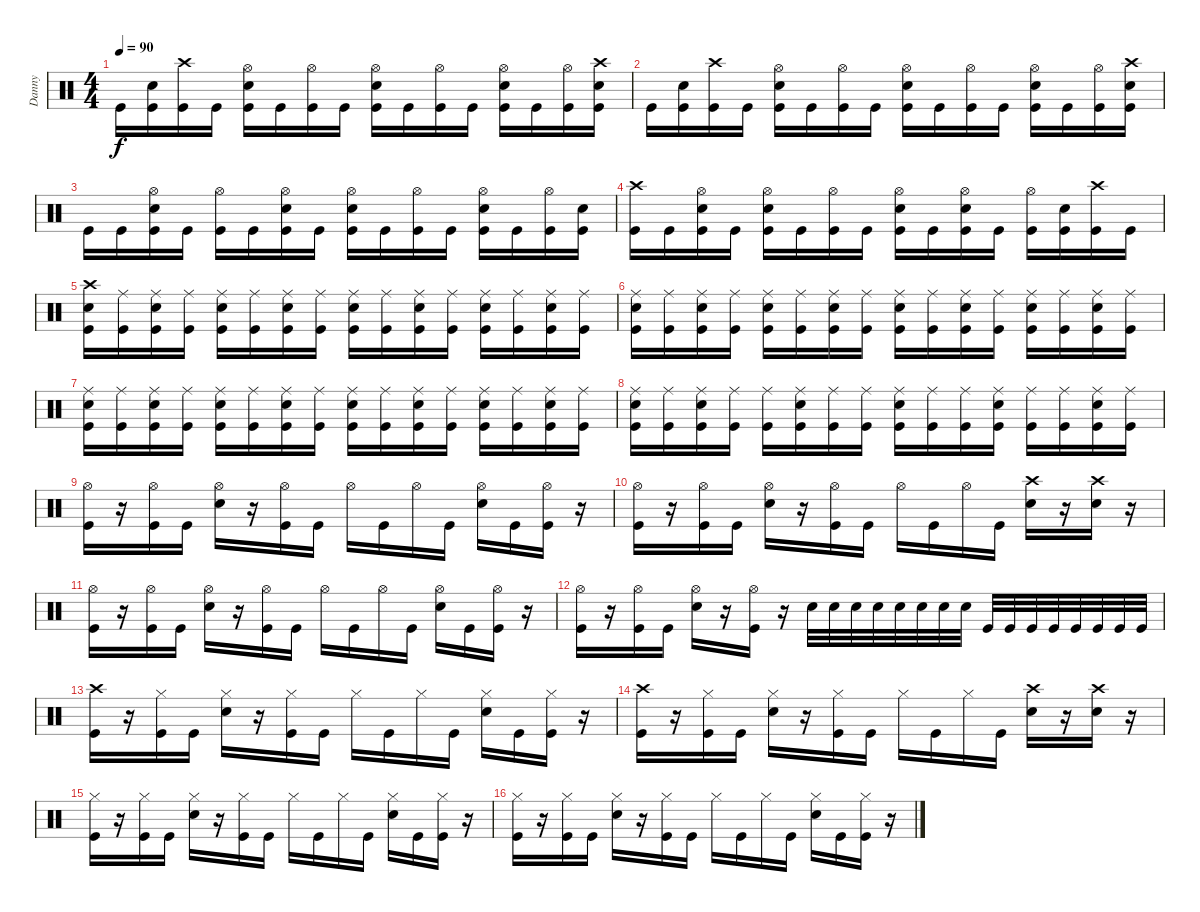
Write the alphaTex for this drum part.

\track ("Danny" "Danny") {instrument percussion}
\staff {score}
\articulation defaults
\ts (4 4)
\tempo 90
\clef neutral
\ks c "Kick (hit)".16{dy f}
("Electric Snare (hit)" "Kick (hit)").16 ("Crash high (hit)" "Kick (hit)").16 "Kick (hit)".16 ("Hi-Hat (open)" "Electric Snare (hit)" "Kick (hit)").16 "Kick (hit)".16 ("Hi-Hat (open)" "Kick (hit)").16 "Kick (hit)".16 ("Hi-Hat (open)" "Electric Snare (hit)" "Kick (hit)").16 "Kick (hit)".16 ("Hi-Hat (open)" "Kick (hit)").16 "Kick (hit)".16 ("Hi-Hat (open)" "Electric Snare (hit)" "Kick (hit)").16 "Kick (hit)".16 ("Hi-Hat (open)" "Kick (hit)").16 ("Crash high (hit)" "Electric Snare (hit)" "Kick (hit)").16 |
"Kick (hit)".16 ("Electric Snare (hit)" "Kick (hit)").16 ("Crash high (hit)" "Kick (hit)").16 "Kick (hit)".16 ("Hi-Hat (open)" "Electric Snare (hit)" "Kick (hit)").16 "Kick (hit)".16 ("Hi-Hat (open)" "Kick (hit)").16 "Kick (hit)".16 ("Hi-Hat (open)" "Electric Snare (hit)" "Kick (hit)").16 "Kick (hit)".16 ("Hi-Hat (open)" "Kick (hit)").16 "Kick (hit)".16 ("Hi-Hat (open)" "Electric Snare (hit)" "Kick (hit)").16 "Kick (hit)".16 ("Hi-Hat (open)" "Kick (hit)").16 ("Crash high (hit)" "Electric Snare (hit)" "Kick (hit)").16 |
"Kick (hit)".16 "Kick (hit)".16 ("Hi-Hat (open)" "Electric Snare (hit)" "Kick (hit)").16 "Kick (hit)".16 ("Hi-Hat (open)" "Kick (hit)").16 "Kick (hit)".16 ("Hi-Hat (open)" "Electric Snare (hit)" "Kick (hit)").16 "Kick (hit)".16 ("Hi-Hat (open)" "Electric Snare (hit)" "Kick (hit)").16 "Kick (hit)".16 ("Hi-Hat (open)" "Kick (hit)").16 "Kick (hit)".16 ("Hi-Hat (open)" "Electric Snare (hit)" "Kick (hit)").16 "Kick (hit)".16 ("Hi-Hat (open)" "Kick (hit)").16 ("Electric Snare (hit)" "Kick (hit)").16 |
("Crash high (hit)" "Kick (hit)").16 "Kick (hit)".16 ("Hi-Hat (open)" "Electric Snare (hit)" "Kick (hit)").16 "Kick (hit)".16 ("Hi-Hat (open)" "Electric Snare (hit)" "Kick (hit)").16 "Kick (hit)".16 ("Hi-Hat (open)" "Kick (hit)").16 "Kick (hit)".16 ("Hi-Hat (open)" "Electric Snare (hit)" "Kick (hit)").16 "Kick (hit)".16 ("Hi-Hat (open)" "Electric Snare (hit)" "Kick (hit)").16 "Kick (hit)".16 ("Hi-Hat (open)" "Kick (hit)").16 ("Electric Snare (hit)" "Kick (hit)").16 ("Crash high (hit)" "Kick (hit)").16 "Kick (hit)".16 |
("Crash high (hit)" "Electric Snare (hit)" "Kick (hit)").16 ("Ride (middle)" "Kick (hit)").16 ("Ride (middle)" "Electric Snare (hit)" "Kick (hit)").16 ("Ride (middle)" "Kick (hit)").16 ("Ride (middle)" "Electric Snare (hit)" "Kick (hit)").16 ("Ride (middle)" "Kick (hit)").16 ("Ride (middle)" "Electric Snare (hit)" "Kick (hit)").16 ("Ride (middle)" "Kick (hit)").16 ("Ride (middle)" "Electric Snare (hit)" "Kick (hit)").16 ("Ride (middle)" "Kick (hit)").16 ("Ride (middle)" "Electric Snare (hit)" "Kick (hit)").16 ("Ride (middle)" "Kick (hit)").16 ("Ride (middle)" "Electric Snare (hit)" "Kick (hit)").16 ("Ride (middle)" "Kick (hit)").16 ("Ride (middle)" "Electric Snare (hit)" "Kick (hit)").16 ("Ride (middle)" "Kick (hit)").16 |
("Ride (middle)" "Electric Snare (hit)" "Kick (hit)").16 ("Ride (middle)" "Kick (hit)").16 ("Ride (middle)" "Electric Snare (hit)" "Kick (hit)").16 ("Ride (middle)" "Kick (hit)").16 ("Ride (middle)" "Electric Snare (hit)" "Kick (hit)").16 ("Ride (middle)" "Kick (hit)").16 ("Ride (middle)" "Electric Snare (hit)" "Kick (hit)").16 ("Ride (middle)" "Kick (hit)").16 ("Ride (middle)" "Electric Snare (hit)" "Kick (hit)").16 ("Ride (middle)" "Kick (hit)").16 ("Ride (middle)" "Electric Snare (hit)" "Kick (hit)").16 ("Ride (middle)" "Kick (hit)").16 ("Ride (middle)" "Electric Snare (hit)" "Kick (hit)").16 ("Ride (middle)" "Kick (hit)").16 ("Ride (middle)" "Electric Snare (hit)" "Kick (hit)").16 ("Ride (middle)" "Kick (hit)").16 |
("Ride (middle)" "Electric Snare (hit)" "Kick (hit)").16 ("Ride (middle)" "Kick (hit)").16 ("Ride (middle)" "Electric Snare (hit)" "Kick (hit)").16 ("Ride (middle)" "Kick (hit)").16 ("Ride (middle)" "Electric Snare (hit)" "Kick (hit)").16 ("Ride (middle)" "Kick (hit)").16 ("Ride (middle)" "Electric Snare (hit)" "Kick (hit)").16 ("Ride (middle)" "Kick (hit)").16 ("Ride (middle)" "Electric Snare (hit)" "Kick (hit)").16 ("Ride (middle)" "Kick (hit)").16 ("Ride (middle)" "Electric Snare (hit)" "Kick (hit)").16 ("Ride (middle)" "Kick (hit)").16 ("Ride (middle)" "Electric Snare (hit)" "Kick (hit)").16 ("Ride (middle)" "Kick (hit)").16 ("Ride (middle)" "Electric Snare (hit)" "Kick (hit)").16 ("Ride (middle)" "Kick (hit)").16 |
("Ride (middle)" "Electric Snare (hit)" "Kick (hit)").16 ("Ride (middle)" "Kick (hit)").16 ("Ride (middle)" "Electric Snare (hit)" "Kick (hit)").16 ("Ride (middle)" "Kick (hit)").16 ("Ride (middle)" "Kick (hit)").16 ("Ride (middle)" "Electric Snare (hit)" "Kick (hit)").16 ("Ride (middle)" "Kick (hit)").16 ("Ride (middle)" "Kick (hit)").16 ("Ride (middle)" "Electric Snare (hit)" "Kick (hit)").16 ("Ride (middle)" "Kick (hit)").16 ("Ride (middle)" "Kick (hit)").16 ("Ride (middle)" "Electric Snare (hit)" "Kick (hit)").16 ("Ride (middle)" "Kick (hit)").16 ("Ride (middle)" "Kick (hit)").16 ("Ride (middle)" "Electric Snare (hit)" "Kick (hit)").16 ("Ride (middle)" "Kick (hit)").16 |
("Hi-Hat (open)" "Kick (hit)").16 r.16 ("Hi-Hat (open)" "Kick (hit)").16 "Kick (hit)".16 ("Hi-Hat (open)" "Electric Snare (hit)").16 r.16 ("Hi-Hat (open)" "Kick (hit)").16 "Kick (hit)".16 "Hi-Hat (open)".16 "Kick (hit)".16 "Hi-Hat (open)".16 "Kick (hit)".16 ("Hi-Hat (open)" "Electric Snare (hit)").16 "Kick (hit)".16 ("Hi-Hat (open)" "Kick (hit)").16 r.16 |
("Hi-Hat (open)" "Kick (hit)").16 r.16 ("Hi-Hat (open)" "Kick (hit)").16 "Kick (hit)".16 ("Hi-Hat (open)" "Electric Snare (hit)").16 r.16 ("Hi-Hat (open)" "Kick (hit)").16 "Kick (hit)".16 "Hi-Hat (open)".16 "Kick (hit)".16 "Hi-Hat (open)".16 "Kick (hit)".16 ("Crash high (hit)" "Electric Snare (hit)").16 r.16 ("Crash high (hit)" "Electric Snare (hit)").16 r.16 |
("Hi-Hat (open)" "Kick (hit)").16 r.16 ("Hi-Hat (open)" "Kick (hit)").16 "Kick (hit)".16 ("Hi-Hat (open)" "Electric Snare (hit)").16 r.16 ("Hi-Hat (open)" "Kick (hit)").16 "Kick (hit)".16 "Hi-Hat (open)".16 "Kick (hit)".16 "Hi-Hat (open)".16 "Kick (hit)".16 ("Hi-Hat (open)" "Electric Snare (hit)").16 "Kick (hit)".16 ("Hi-Hat (open)" "Kick (hit)").16 r.16 |
("Hi-Hat (open)" "Kick (hit)").16 r.16 ("Hi-Hat (open)" "Kick (hit)").16 "Kick (hit)".16 ("Hi-Hat (open)" "Electric Snare (hit)").16 r.16 ("Hi-Hat (open)" "Kick (hit)").16 r.16 "Electric Snare (hit)".32 "Electric Snare (hit)".32 "Electric Snare (hit)".32 "Electric Snare (hit)".32 "Electric Snare (hit)".32 "Electric Snare (hit)".32 "Electric Snare (hit)".32 "Electric Snare (hit)".32 "Kick (hit)".32 "Kick (hit)".32 "Kick (hit)".32 "Kick (hit)".32 "Kick (hit)".32 "Kick (hit)".32 "Kick (hit)".32 "Kick (hit)".32 |
("Crash high (hit)" "Kick (hit)").16 r.16 ("Hi-Hat (closed)" "Kick (hit)").16 "Kick (hit)".16 ("Hi-Hat (closed)" "Electric Snare (hit)").16 r.16 ("Hi-Hat (closed)" "Kick (hit)").16 "Kick (hit)".16 "Hi-Hat (closed)".16 "Kick (hit)".16 "Hi-Hat (closed)".16 "Kick (hit)".16 ("Hi-Hat (closed)" "Electric Snare (hit)").16 "Kick (hit)".16 ("Hi-Hat (closed)" "Kick (hit)").16 r.16 |
("Crash high (hit)" "Kick (hit)").16 r.16 ("Hi-Hat (closed)" "Kick (hit)").16 "Kick (hit)".16 ("Hi-Hat (closed)" "Electric Snare (hit)").16 r.16 ("Hi-Hat (closed)" "Kick (hit)").16 "Kick (hit)".16 "Hi-Hat (closed)".16 "Kick (hit)".16 "Hi-Hat (closed)".16 "Kick (hit)".16 ("Crash high (hit)" "Electric Snare (hit)").16 r.16 ("Crash high (hit)" "Electric Snare (hit)").16 r.16 |
("Hi-Hat (closed)" "Kick (hit)").16 r.16 ("Hi-Hat (closed)" "Kick (hit)").16 "Kick (hit)".16 ("Hi-Hat (closed)" "Electric Snare (hit)").16 r.16 ("Hi-Hat (closed)" "Kick (hit)").16 "Kick (hit)".16 "Hi-Hat (closed)".16 "Kick (hit)".16 "Hi-Hat (closed)".16 "Kick (hit)".16 ("Hi-Hat (closed)" "Electric Snare (hit)").16 "Kick (hit)".16 ("Hi-Hat (closed)" "Kick (hit)").16 r.16 |
("Hi-Hat (closed)" "Kick (hit)").16 r.16 ("Hi-Hat (closed)" "Kick (hit)").16 "Kick (hit)".16 ("Hi-Hat (closed)" "Electric Snare (hit)").16 r.16 ("Hi-Hat (closed)" "Kick (hit)").16 "Kick (hit)".16 "Hi-Hat (closed)".16 "Kick (hit)".16 "Hi-Hat (closed)".16 "Kick (hit)".16 ("Hi-Hat (closed)" "Electric Snare (hit)").16 "Kick (hit)".16 ("Hi-Hat (closed)" "Kick (hit)").16 r.16
